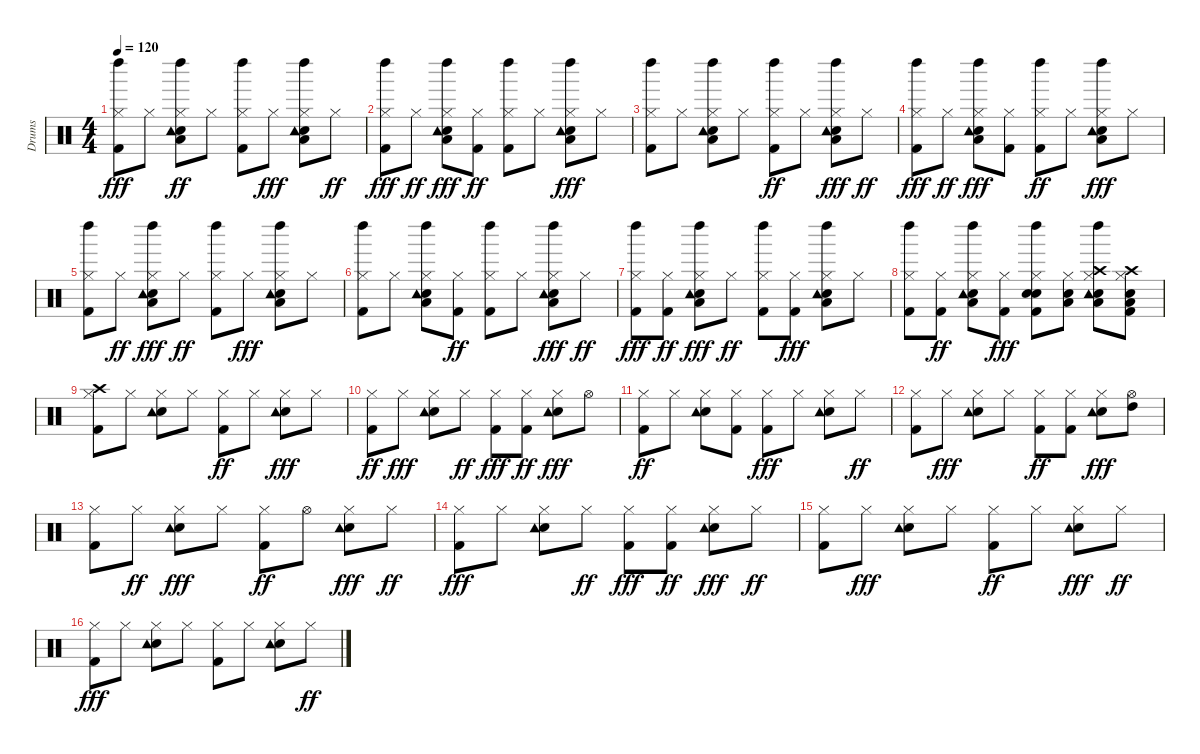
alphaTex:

\track ("Drums" "Drums") {instrument percussion}
\staff {score}
\articulation defaults
\ts (4 4)
\tempo 120
\clef neutral
\ks c
("Kick (hit) 2" "Hi-Hat (closed)" "Left Maraca (hit)").8{dy fff} "Hi-Hat (closed)".8 ("Hi-Hat (closed)" "Left Maraca (hit)" "Low Floor Tom (hit)" "Snare (hit) 2" "Tambourine (hit)").8{dy ff} "Hi-Hat (closed)".8 ("Kick (hit) 2" "Hi-Hat (closed)" "Left Maraca (hit)").8 "Hi-Hat (closed)".8{dy fff} ("Hi-Hat (closed)" "Left Maraca (hit)" "Low Floor Tom (hit)" "Snare (hit) 2" "Tambourine (hit)").8 "Hi-Hat (closed)".8{dy ff} |
("Kick (hit) 2" "Hi-Hat (closed)" "Left Maraca (hit)").8{dy fff} "Hi-Hat (closed)".8{dy ff} ("Hi-Hat (closed)" "Left Maraca (hit)" "Low Floor Tom (hit)" "Snare (hit) 2" "Tambourine (hit)").8{dy fff} ("Kick (hit) 2" "Hi-Hat (closed)").8{dy ff} ("Kick (hit) 2" "Hi-Hat (closed)" "Left Maraca (hit)").8 "Hi-Hat (closed)".8 ("Hi-Hat (closed)" "Left Maraca (hit)" "Low Floor Tom (hit)" "Snare (hit) 2" "Tambourine (hit)").8{dy fff} "Hi-Hat (closed)".8 |
("Kick (hit) 2" "Hi-Hat (closed)" "Left Maraca (hit)").8 "Hi-Hat (closed)".8 ("Hi-Hat (closed)" "Left Maraca (hit)" "Low Floor Tom (hit)" "Snare (hit) 2" "Tambourine (hit)").8 "Hi-Hat (closed)".8 ("Kick (hit) 2" "Hi-Hat (closed)" "Left Maraca (hit)").8{dy ff} "Hi-Hat (closed)".8 ("Hi-Hat (closed)" "Left Maraca (hit)" "Low Floor Tom (hit)" "Snare (hit) 2" "Tambourine (hit)").8{dy fff} "Hi-Hat (closed)".8{dy ff} |
("Kick (hit) 2" "Hi-Hat (closed)" "Left Maraca (hit)").8{dy fff} "Hi-Hat (closed)".8{dy ff} ("Hi-Hat (closed)" "Left Maraca (hit)" "Low Floor Tom (hit)" "Snare (hit) 2" "Tambourine (hit)").8{dy fff} ("Kick (hit) 2" "Hi-Hat (closed)").8 ("Kick (hit) 2" "Hi-Hat (closed)" "Left Maraca (hit)").8{dy ff} "Hi-Hat (closed)".8 ("Hi-Hat (closed)" "Left Maraca (hit)" "Low Floor Tom (hit)" "Snare (hit) 2" "Tambourine (hit)").8{dy fff} "Hi-Hat (closed)".8 |
("Kick (hit) 2" "Hi-Hat (closed)" "Left Maraca (hit)").8 "Hi-Hat (closed)".8{dy ff} ("Hi-Hat (closed)" "Left Maraca (hit)" "Low Floor Tom (hit)" "Snare (hit) 2" "Tambourine (hit)").8{dy fff} "Hi-Hat (closed)".8{dy ff} ("Kick (hit) 2" "Hi-Hat (closed)" "Left Maraca (hit)").8 "Hi-Hat (closed)".8{dy fff} ("Hi-Hat (closed)" "Left Maraca (hit)" "Low Floor Tom (hit)" "Snare (hit) 2" "Tambourine (hit)").8 "Hi-Hat (closed)".8 |
("Kick (hit) 2" "Hi-Hat (closed)" "Left Maraca (hit)").8 "Hi-Hat (closed)".8 ("Hi-Hat (closed)" "Left Maraca (hit)" "Low Floor Tom (hit)" "Snare (hit) 2" "Tambourine (hit)").8 ("Kick (hit) 2" "Hi-Hat (closed)").8{dy ff} ("Kick (hit) 2" "Hi-Hat (closed)" "Left Maraca (hit)").8 "Hi-Hat (closed)".8 ("Hi-Hat (closed)" "Left Maraca (hit)" "Low Floor Tom (hit)" "Snare (hit) 2" "Tambourine (hit)").8{dy fff} "Hi-Hat (closed)".8{dy ff} |
("Kick (hit) 2" "Hi-Hat (closed)" "Left Maraca (hit)").8{dy fff} ("Kick (hit) 2" "Hi-Hat (closed)").8{dy ff} ("Hi-Hat (closed)" "Left Maraca (hit)" "Low Floor Tom (hit)" "Snare (hit) 2" "Tambourine (hit)").8{dy fff} "Hi-Hat (closed)".8{dy ff} ("Kick (hit) 2" "Hi-Hat (closed)" "Left Maraca (hit)").8 ("Kick (hit) 2" "Hi-Hat (closed)").8{dy fff} ("Hi-Hat (closed)" "Left Maraca (hit)" "Snare (hit) 2" "Tambourine (hit)" "Low Floor Tom (hit)").8 "Hi-Hat (closed)".8 |
("Kick (hit) 2" "Hi-Hat (closed)" "Left Maraca (hit)").8 ("Kick (hit) 2" "Hi-Hat (closed)").8{dy ff} ("Hi-Hat (closed)" "Left Maraca (hit)" "Low Floor Tom (hit)" "Snare (hit) 2" "Tambourine (hit)").8 ("Kick (hit) 2" "Hi-Hat (closed)").8{dy fff} ("Kick (hit) 2" "Hi-Hat (closed)" "Left Maraca (hit)" "Snare (hit) 2" "Snare (hit) 2").8 ("Hi-Hat (closed)" "Low Tom (hit)" "Snare (hit) 2").8 ("Hi-Hat (closed)" "Left Maraca (hit)" "Snare (hit) 2" "Tambourine (hit)" "Low Floor Tom (hit)" "Crash high (hit)").8 ("Kick (hit) 2" "Hi-Hat (closed)" "Low Tom (hit)" "Snare (hit) 2" "Crash high (hit)").8 |
("Kick (hit) 2" "Hi-Hat (closed)" "Crash high (hit)").8 "Hi-Hat (closed)".8 ("Hi-Hat (closed)" "Snare (hit) 2" "Tambourine (hit)").8 "Hi-Hat (closed)".8 ("Kick (hit) 2" "Hi-Hat (closed)").8{dy ff} "Hi-Hat (closed)".8 ("Hi-Hat (closed)" "Snare (hit) 2" "Tambourine (hit)").8{dy fff} "Hi-Hat (closed)".8 |
("Kick (hit) 2" "Hi-Hat (closed)").8{dy ff} "Hi-Hat (closed)".8{dy fff} ("Hi-Hat (closed)" "Snare (hit) 2" "Tambourine (hit)").8 "Hi-Hat (closed)".8{dy ff} ("Kick (hit) 2" "Hi-Hat (closed)").8{dy fff} ("Kick (hit) 2" "Hi-Hat (closed)").8{dy ff} ("Hi-Hat (closed)" "Snare (hit) 2" "Tambourine (hit)").8{dy fff} "Hi-Hat (open)".8 |
("Kick (hit) 2" "Hi-Hat (closed)").8{dy ff} "Hi-Hat (closed)".8 ("Hi-Hat (closed)" "Snare (hit) 2" "Tambourine (hit)").8 ("Kick (hit) 2" "Hi-Hat (closed)").8 ("Kick (hit) 2" "Hi-Hat (closed)").8{dy fff} "Hi-Hat (closed)".8 ("Hi-Hat (closed)" "Snare (hit) 2" "Tambourine (hit)").8 "Hi-Hat (closed)".8{dy ff} |
("Kick (hit) 2" "Hi-Hat (closed)").8 "Hi-Hat (closed)".8{dy fff} ("Hi-Hat (closed)" "Snare (hit) 2" "Tambourine (hit)").8 "Hi-Hat (closed)".8 ("Kick (hit) 2" "Hi-Hat (closed)").8{dy ff} ("Kick (hit) 2" "Hi-Hat (closed)").8 ("Hi-Hat (closed)" "Snare (hit) 2" "Tambourine (hit)").8{dy fff} ("Hi-Hat (open)" "High Tom (hit)").8 |
("Kick (hit) 2" "Hi-Hat (closed)").8 "Hi-Hat (closed)".8{dy ff} ("Hi-Hat (closed)" "Snare (hit) 2" "Tambourine (hit)").8{dy fff} "Hi-Hat (closed)".8 ("Kick (hit) 2" "Hi-Hat (closed)").8{dy ff} "Hi-Hat (open)".8 ("Hi-Hat (closed)" "Snare (hit) 2" "Tambourine (hit)").8{dy fff} "Hi-Hat (closed)".8{dy ff} |
("Kick (hit) 2" "Hi-Hat (closed)").8{dy fff} "Hi-Hat (closed)".8 ("Hi-Hat (closed)" "Snare (hit) 2" "Tambourine (hit)").8 "Hi-Hat (closed)".8{dy ff} ("Kick (hit) 2" "Hi-Hat (closed)").8{dy fff} ("Kick (hit) 2" "Hi-Hat (closed)").8{dy ff} ("Hi-Hat (closed)" "Snare (hit) 2" "Tambourine (hit)").8{dy fff} "Hi-Hat (closed)".8{dy ff} |
("Kick (hit) 2" "Hi-Hat (closed)").8 "Hi-Hat (closed)".8{dy fff} ("Hi-Hat (closed)" "Snare (hit) 2" "Tambourine (hit)").8 "Hi-Hat (closed)".8 ("Kick (hit) 2" "Hi-Hat (closed)").8{dy ff} "Hi-Hat (closed)".8 ("Hi-Hat (closed)" "Snare (hit) 2" "Tambourine (hit)").8{dy fff} "Hi-Hat (closed)".8{dy ff} |
("Kick (hit) 2" "Hi-Hat (closed)").8{dy fff} "Hi-Hat (closed)".8 ("Hi-Hat (closed)" "Snare (hit) 2" "Tambourine (hit)").8 "Hi-Hat (closed)".8 ("Kick (hit) 2" "Hi-Hat (closed)").8 "Hi-Hat (closed)".8 ("Hi-Hat (closed)" "Snare (hit) 2" "Tambourine (hit)").8 "Hi-Hat (closed)".8{dy ff}
